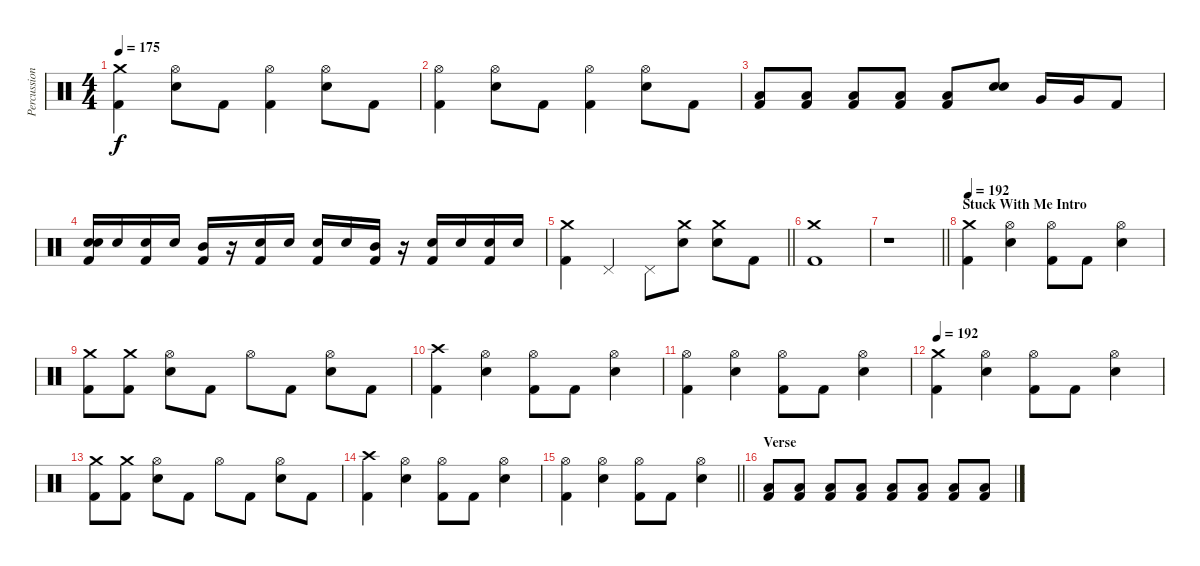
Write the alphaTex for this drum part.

\track ("Percussion" "Percussion") {instrument percussion}
\staff {score}
\articulation defaults
\ts (4 4)
\tempo 175
\clef neutral
\ks c
("Crash medium (hit)" "Kick (hit) 2").4{dy f} ("Hi-Hat (open)" "Electric Snare (hit)").8 "Kick (hit) 2".8 ("Hi-Hat (open)" "Kick (hit) 2").4 ("Hi-Hat (open)" "Electric Snare (hit)").8 "Kick (hit) 2".8 |
("Hi-Hat (open)" "Kick (hit) 2").4 ("Hi-Hat (open)" "Electric Snare (hit)").8 "Kick (hit) 2".8 ("Hi-Hat (open)" "Kick (hit) 2").4 ("Hi-Hat (open)" "Electric Snare (hit)").8 "Kick (hit) 2".8 |
("Low Floor Tom (hit)" "Kick (hit) 2").8 ("Low Floor Tom (hit)" "Kick (hit) 2").8 ("Low Floor Tom (hit)" "Kick (hit) 2").8 ("Low Floor Tom (hit)" "Kick (hit) 2").8 ("Low Floor Tom (hit)" "Kick (hit) 2").8 ("Electric Snare (hit)" "Electric Snare (hit)").8 "Very Low Tom (hit)".16 "Very Low Tom (hit)".16 "Kick (hit) 2".8 |
("Electric Snare (hit)" "Electric Snare (hit)" "Kick (hit) 2").16 "Electric Snare (hit)".16 ("Electric Snare (hit)" "Kick (hit) 2").16 "Electric Snare (hit)".16 ("Mid Tom (hit)" "Kick (hit) 2").16 r.16 ("Electric Snare (hit)" "Kick (hit) 2").16 "Electric Snare (hit)".16 ("Electric Snare (hit)" "Kick (hit) 2").16 "Electric Snare (hit)".16 ("Mid Tom (hit)" "Kick (hit) 2").16 r.16 ("Electric Snare (hit)" "Kick (hit) 2").16 "Electric Snare (hit)".16 ("Electric Snare (hit)" "Kick (hit) 2").16 "Electric Snare (hit)".16 |
\barLineRight lightlight
("Crash medium (hit)" "Kick (hit) 2").4 "Pedal Hi-Hat (hit)".4 "Pedal Hi-Hat (hit)".8 ("Crash medium (hit)" "Electric Snare (hit)").8 ("Crash medium (hit)" "Electric Snare (hit)").8 "Kick (hit) 2".8 |
("Crash medium (hit)" "Kick (hit) 2").1 |
\barLineRight lightlight
r.1 |
\section ("" "Stuck With Me Intro")
\tempo 185
\tempo 192
("Crash medium (hit)" "Kick (hit) 2").4 ("Hi-Hat (open)" "Electric Snare (hit)").4 ("Hi-Hat (open)" "Kick (hit) 2").8 "Kick (hit) 2".8 ("Hi-Hat (open)" "Electric Snare (hit)").4 |
("Crash medium (hit)" "Kick (hit) 2").8 ("Crash medium (hit)" "Kick (hit) 2").8 ("Hi-Hat (open)" "Electric Snare (hit)").8 "Kick (hit) 2".8 "Hi-Hat (open)".8 "Kick (hit) 2".8 ("Hi-Hat (open)" "Electric Snare (hit)").8 "Kick (hit) 2".8 |
("Crash high (hit)" "Kick (hit) 2").4 ("Hi-Hat (open)" "Electric Snare (hit)").4 ("Hi-Hat (open)" "Kick (hit) 2").8 "Kick (hit) 2".8 ("Hi-Hat (open)" "Electric Snare (hit)").4 |
("Hi-Hat (open)" "Kick (hit) 2").4 ("Hi-Hat (open)" "Electric Snare (hit)").4 ("Hi-Hat (open)" "Kick (hit) 2").8 "Kick (hit) 2".8 ("Hi-Hat (open)" "Electric Snare (hit)").4 |
\tempo 192
("Crash medium (hit)" "Kick (hit) 2").4 ("Hi-Hat (open)" "Electric Snare (hit)").4 ("Hi-Hat (open)" "Kick (hit) 2").8 "Kick (hit) 2".8 ("Hi-Hat (open)" "Electric Snare (hit)").4 |
("Crash medium (hit)" "Kick (hit) 2").8 ("Crash medium (hit)" "Kick (hit) 2").8 ("Hi-Hat (open)" "Electric Snare (hit)").8 "Kick (hit) 2".8 "Hi-Hat (open)".8 "Kick (hit) 2".8 ("Hi-Hat (open)" "Electric Snare (hit)").8 "Kick (hit) 2".8 |
("Crash high (hit)" "Kick (hit) 2").4 ("Hi-Hat (open)" "Electric Snare (hit)").4 ("Hi-Hat (open)" "Kick (hit) 2").8 "Kick (hit) 2".8 ("Hi-Hat (open)" "Electric Snare (hit)").4 |
\barLineRight lightlight
("Hi-Hat (open)" "Kick (hit) 2").4 ("Hi-Hat (open)" "Electric Snare (hit)").4 ("Hi-Hat (open)" "Kick (hit) 2").8 "Kick (hit) 2".8 ("Hi-Hat (open)" "Electric Snare (hit)").4 |
\section ("" "Verse")
("Low Floor Tom (hit)" "Kick (hit) 2").8 ("Low Floor Tom (hit)" "Kick (hit) 2").8 ("Low Floor Tom (hit)" "Kick (hit) 2").8 ("Low Floor Tom (hit)" "Kick (hit) 2").8 ("Low Floor Tom (hit)" "Kick (hit) 2").8 ("Low Floor Tom (hit)" "Kick (hit) 2").8 ("Low Floor Tom (hit)" "Kick (hit) 2").8 ("Low Floor Tom (hit)" "Kick (hit) 2").8
